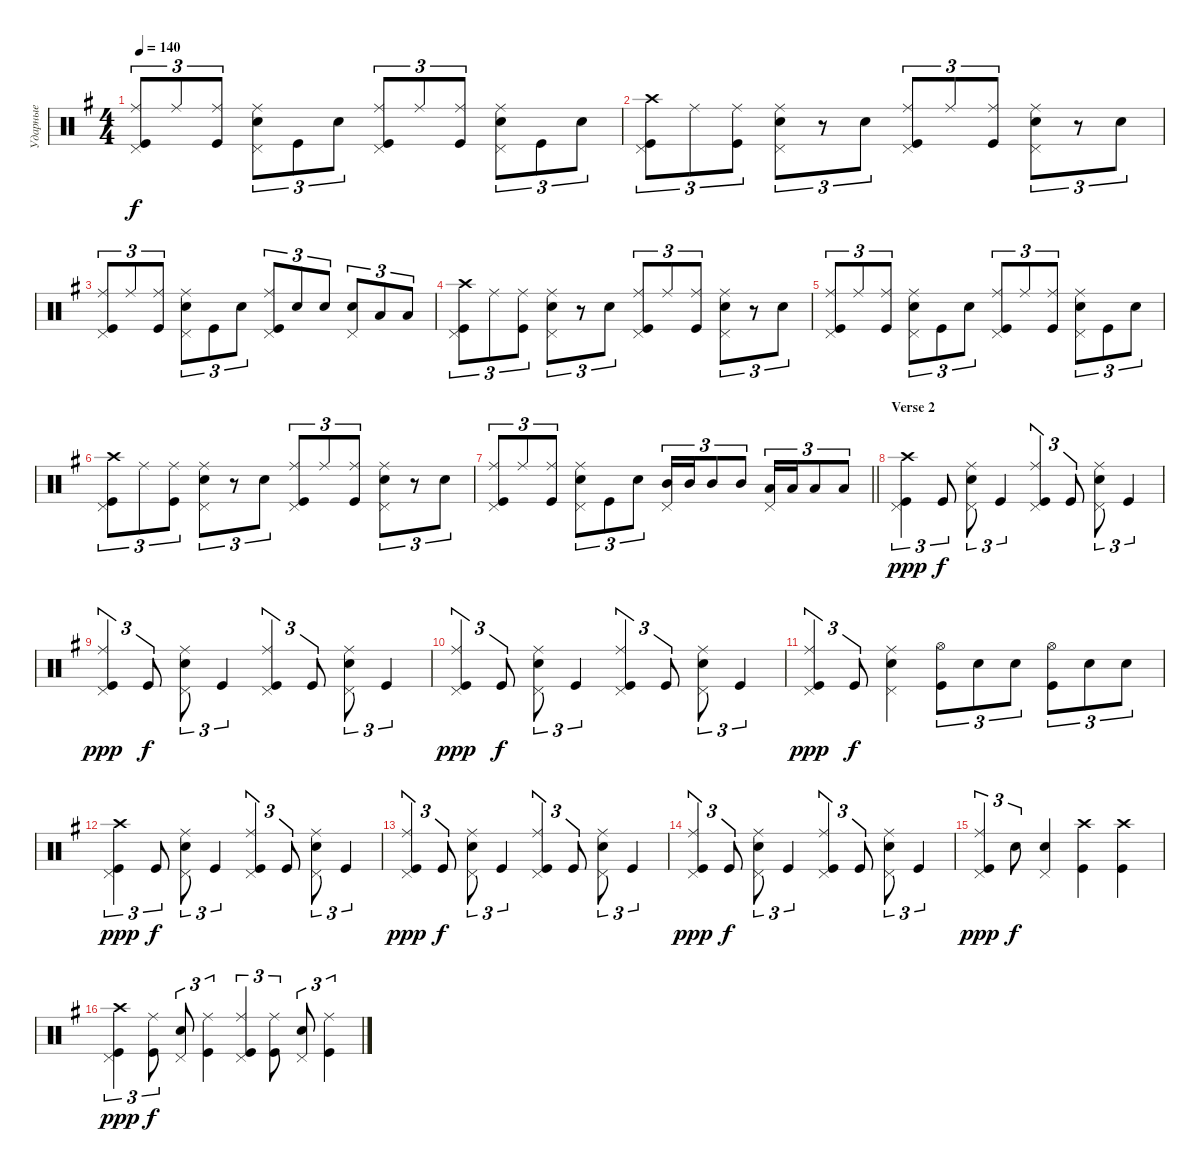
\track ("Ударные" "Ударные") {instrument percussion}
\staff {score}
\articulation defaults
\ts (4 4)
\tempo 140
\clef neutral
\ks eminor
("Kick (hit)" "Ride (middle)" "Pedal Hi-Hat (hit)").8{tu (3 2) dy f} "Ride (middle)".8{tu (3 2)} ("Kick (hit)" "Ride (middle)").8{tu (3 2)} ("Snare (hit) 2" "Ride (middle)" "Pedal Hi-Hat (hit)").8{tu (3 2)} "Kick (hit)".8{tu (3 2)} "Snare (hit) 2".8{tu (3 2)} ("Kick (hit)" "Ride (middle)" "Pedal Hi-Hat (hit)").8{tu (3 2)} "Ride (middle)".8{tu (3 2)} ("Kick (hit)" "Ride (middle)").8{tu (3 2)} ("Snare (hit) 2" "Ride (middle)" "Pedal Hi-Hat (hit)").8{tu (3 2)} "Kick (hit)".8{tu (3 2)} "Snare (hit) 2".8{tu (3 2)} |
("Kick (hit)" "Crash high (hit)" "Pedal Hi-Hat (hit)").8{tu (3 2)} "Ride (middle)".8{tu (3 2)} ("Kick (hit)" "Ride (middle)").8{tu (3 2)} ("Snare (hit) 2" "Ride (middle)" "Pedal Hi-Hat (hit)").8{tu (3 2)} r.8{tu (3 2)} "Snare (hit) 2".8{tu (3 2)} ("Kick (hit)" "Ride (middle)" "Pedal Hi-Hat (hit)").8{tu (3 2)} "Ride (middle)".8{tu (3 2)} ("Kick (hit)" "Ride (middle)").8{tu (3 2)} ("Snare (hit) 2" "Ride (middle)" "Pedal Hi-Hat (hit)").8{tu (3 2)} r.8{tu (3 2)} "Snare (hit) 2".8{tu (3 2)} |
("Kick (hit)" "Ride (middle)" "Pedal Hi-Hat (hit)").8{tu (3 2)} "Ride (middle)".8{tu (3 2)} ("Kick (hit)" "Ride (middle)").8{tu (3 2)} ("Snare (hit) 2" "Ride (middle)" "Pedal Hi-Hat (hit)").8{tu (3 2)} "Kick (hit)".8{tu (3 2)} "Snare (hit) 2".8{tu (3 2)} ("Kick (hit)" "Ride (middle)" "Pedal Hi-Hat (hit)").8{tu (3 2)} "Snare (hit) 2".8{tu (3 2)} "Snare (hit) 2".8{tu (3 2)} ("Snare (hit) 2" "Pedal Hi-Hat (hit)").8{tu (3 2)} "Low Tom (hit)".8{tu (3 2)} "Low Tom (hit)".8{tu (3 2)} |
("Kick (hit)" "Crash high (hit)" "Pedal Hi-Hat (hit)").8{tu (3 2)} "Ride (middle)".8{tu (3 2)} ("Kick (hit)" "Ride (middle)").8{tu (3 2)} ("Snare (hit) 2" "Ride (middle)" "Pedal Hi-Hat (hit)").8{tu (3 2)} r.8{tu (3 2)} "Snare (hit) 2".8{tu (3 2)} ("Kick (hit)" "Ride (middle)" "Pedal Hi-Hat (hit)").8{tu (3 2)} "Ride (middle)".8{tu (3 2)} ("Kick (hit)" "Ride (middle)").8{tu (3 2)} ("Snare (hit) 2" "Ride (middle)" "Pedal Hi-Hat (hit)").8{tu (3 2)} r.8{tu (3 2)} "Snare (hit) 2".8{tu (3 2)} |
("Kick (hit)" "Ride (middle)" "Pedal Hi-Hat (hit)").8{tu (3 2)} "Ride (middle)".8{tu (3 2)} ("Kick (hit)" "Ride (middle)").8{tu (3 2)} ("Snare (hit) 2" "Ride (middle)" "Pedal Hi-Hat (hit)").8{tu (3 2)} "Kick (hit)".8{tu (3 2)} "Snare (hit) 2".8{tu (3 2)} ("Kick (hit)" "Ride (middle)" "Pedal Hi-Hat (hit)").8{tu (3 2)} "Ride (middle)".8{tu (3 2)} ("Kick (hit)" "Ride (middle)").8{tu (3 2)} ("Snare (hit) 2" "Ride (middle)" "Pedal Hi-Hat (hit)").8{tu (3 2)} "Kick (hit)".8{tu (3 2)} "Snare (hit) 2".8{tu (3 2)} |
("Kick (hit)" "Crash high (hit)" "Pedal Hi-Hat (hit)").8{tu (3 2)} "Ride (middle)".8{tu (3 2)} ("Kick (hit)" "Ride (middle)").8{tu (3 2)} ("Snare (hit) 2" "Ride (middle)" "Pedal Hi-Hat (hit)").8{tu (3 2)} r.8{tu (3 2)} "Snare (hit) 2".8{tu (3 2)} ("Kick (hit)" "Ride (middle)" "Pedal Hi-Hat (hit)").8{tu (3 2)} "Ride (middle)".8{tu (3 2)} ("Kick (hit)" "Ride (middle)").8{tu (3 2)} ("Snare (hit) 2" "Ride (middle)" "Pedal Hi-Hat (hit)").8{tu (3 2)} r.8{tu (3 2)} "Snare (hit) 2".8{tu (3 2)} |
\barLineRight lightlight
("Kick (hit)" "Ride (middle)" "Pedal Hi-Hat (hit)").8{tu (3 2)} "Ride (middle)".8{tu (3 2)} ("Kick (hit)" "Ride (middle)").8{tu (3 2)} ("Snare (hit) 2" "Ride (middle)" "Pedal Hi-Hat (hit)").8{tu (3 2)} "Kick (hit)".8{tu (3 2)} "Snare (hit) 2".8{tu (3 2)} ("Pedal Hi-Hat (hit)" "Mid Tom (hit)").16{tu (3 2)} "Mid Tom (hit)".16{tu (3 2)} "Mid Tom (hit)".8{tu (3 2)} "Mid Tom (hit)".8{tu (3 2)} ("Low Tom (hit)" "Pedal Hi-Hat (hit)").16{tu (3 2)} "Low Tom (hit)".16{tu (3 2)} "Low Tom (hit)".8{tu (3 2)} "Low Tom (hit)".8{tu (3 2)} |
\section ("" "Verse 2")
("Kick (hit)" "Pedal Hi-Hat (hit)" "Crash high (hit)").4{tu (3 2) dy ppp} "Kick (hit)".8{tu (3 2) dy f} ("Snare (hit) 2" "Pedal Hi-Hat (hit)" "Ride (middle)").8{tu (3 2)} "Kick (hit)".4{tu (3 2)} ("Kick (hit)" "Pedal Hi-Hat (hit)" "Ride (middle)").4{tu (3 2)} "Kick (hit)".8{tu (3 2)} ("Snare (hit) 2" "Pedal Hi-Hat (hit)" "Ride (middle)").8{tu (3 2)} "Kick (hit)".4{tu (3 2)} |
("Kick (hit)" "Pedal Hi-Hat (hit)" "Ride (middle)").4{tu (3 2) dy ppp} "Kick (hit)".8{tu (3 2) dy f} ("Snare (hit) 2" "Pedal Hi-Hat (hit)" "Ride (middle)").8{tu (3 2)} "Kick (hit)".4{tu (3 2)} ("Kick (hit)" "Pedal Hi-Hat (hit)" "Ride (middle)").4{tu (3 2)} "Kick (hit)".8{tu (3 2)} ("Snare (hit) 2" "Pedal Hi-Hat (hit)" "Ride (middle)").8{tu (3 2)} "Kick (hit)".4{tu (3 2)} |
("Kick (hit)" "Pedal Hi-Hat (hit)" "Ride (middle)").4{tu (3 2) dy ppp} "Kick (hit)".8{tu (3 2) dy f} ("Snare (hit) 2" "Pedal Hi-Hat (hit)" "Ride (middle)").8{tu (3 2)} "Kick (hit)".4{tu (3 2)} ("Kick (hit)" "Pedal Hi-Hat (hit)" "Ride (middle)").4{tu (3 2)} "Kick (hit)".8{tu (3 2)} ("Snare (hit) 2" "Pedal Hi-Hat (hit)" "Ride (middle)").8{tu (3 2)} "Kick (hit)".4{tu (3 2)} |
("Kick (hit)" "Pedal Hi-Hat (hit)" "Ride (middle)").4{tu (3 2) dy ppp} "Kick (hit)".8{tu (3 2) dy f} ("Snare (hit) 2" "Pedal Hi-Hat (hit)" "Ride (middle)").4 ("Kick (hit)" "Hi-Hat (open)").8{tu (3 2)} "Snare (hit) 2".8{tu (3 2)} "Snare (hit) 2".8{tu (3 2)} ("Kick (hit)" "Hi-Hat (open)").8{tu (3 2)} "Snare (hit) 2".8{tu (3 2)} "Snare (hit) 2".8{tu (3 2)} |
("Kick (hit)" "Pedal Hi-Hat (hit)" "Crash high (hit)").4{tu (3 2) dy ppp} "Kick (hit)".8{tu (3 2) dy f} ("Snare (hit) 2" "Pedal Hi-Hat (hit)" "Ride (middle)").8{tu (3 2)} "Kick (hit)".4{tu (3 2)} ("Kick (hit)" "Pedal Hi-Hat (hit)" "Ride (middle)").4{tu (3 2)} "Kick (hit)".8{tu (3 2)} ("Snare (hit) 2" "Pedal Hi-Hat (hit)" "Ride (middle)").8{tu (3 2)} "Kick (hit)".4{tu (3 2)} |
("Kick (hit)" "Pedal Hi-Hat (hit)" "Ride (middle)").4{tu (3 2) dy ppp} "Kick (hit)".8{tu (3 2) dy f} ("Snare (hit) 2" "Pedal Hi-Hat (hit)" "Ride (middle)").8{tu (3 2)} "Kick (hit)".4{tu (3 2)} ("Kick (hit)" "Pedal Hi-Hat (hit)" "Ride (middle)").4{tu (3 2)} "Kick (hit)".8{tu (3 2)} ("Snare (hit) 2" "Pedal Hi-Hat (hit)" "Ride (middle)").8{tu (3 2)} "Kick (hit)".4{tu (3 2)} |
("Kick (hit)" "Pedal Hi-Hat (hit)" "Ride (middle)").4{tu (3 2) dy ppp} "Kick (hit)".8{tu (3 2) dy f} ("Snare (hit) 2" "Pedal Hi-Hat (hit)" "Ride (middle)").8{tu (3 2)} "Kick (hit)".4{tu (3 2)} ("Kick (hit)" "Pedal Hi-Hat (hit)" "Ride (middle)").4{tu (3 2)} "Kick (hit)".8{tu (3 2)} ("Snare (hit) 2" "Pedal Hi-Hat (hit)" "Ride (middle)").8{tu (3 2)} "Kick (hit)".4{tu (3 2)} |
("Kick (hit)" "Pedal Hi-Hat (hit)" "Ride (middle)").4{tu (3 2) dy ppp} "Snare (hit) 2".8{tu (3 2) dy f} ("Snare (hit) 2" "Pedal Hi-Hat (hit)").4 ("Kick (hit)" "Crash high (hit)").4 ("Kick (hit)" "Crash high (hit)").4 |
("Kick (hit)" "Pedal Hi-Hat (hit)" "Crash high (hit)").4{tu (3 2) dy ppp} ("Kick (hit)" "Ride (middle)").8{tu (3 2) dy f} ("Snare (hit) 2" "Pedal Hi-Hat (hit)").8{tu (3 2)} ("Kick (hit)" "Ride (middle)").4{tu (3 2)} ("Kick (hit)" "Pedal Hi-Hat (hit)" "Ride (middle)").4{tu (3 2)} ("Kick (hit)" "Ride (middle)").8{tu (3 2)} ("Snare (hit) 2" "Pedal Hi-Hat (hit)").8{tu (3 2)} ("Kick (hit)" "Ride (middle)").4{tu (3 2)}
